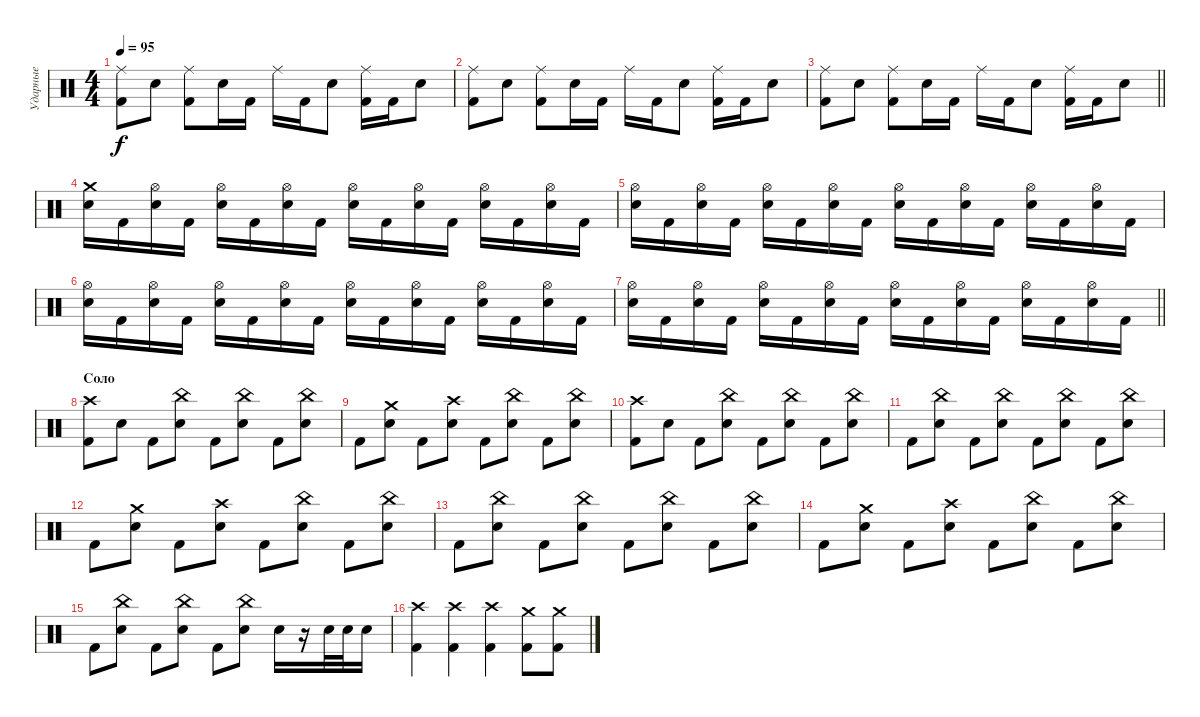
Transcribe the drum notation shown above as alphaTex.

\track ("Ударные" "Ударные") {instrument percussion}
\staff {score}
\articulation defaults
\ts (4 4)
\tempo 95
\clef neutral
\ks c
("Kick (hit) 2" "Ride (middle)").8{dy f} "Electric Snare (hit)".8 ("Kick (hit) 2" "Ride (middle)").8 "Electric Snare (hit)".16 "Kick (hit) 2".16 "Ride (middle)".16 "Kick (hit) 2".16 "Electric Snare (hit)".8 ("Kick (hit) 2" "Ride (middle)").16 "Kick (hit) 2".16 "Electric Snare (hit)".8 |
("Kick (hit) 2" "Ride (middle)").8 "Electric Snare (hit)".8 ("Kick (hit) 2" "Ride (middle)").8 "Electric Snare (hit)".16 "Kick (hit) 2".16 "Ride (middle)".16 "Kick (hit) 2".16 "Electric Snare (hit)".8 ("Kick (hit) 2" "Ride (middle)").16 "Kick (hit) 2".16 "Electric Snare (hit)".8 |
\barLineRight lightlight
("Kick (hit) 2" "Ride (middle)").8 "Electric Snare (hit)".8 ("Kick (hit) 2" "Ride (middle)").8 "Electric Snare (hit)".16 "Kick (hit) 2".16 "Ride (middle)".16 "Kick (hit) 2".16 "Electric Snare (hit)".8 ("Kick (hit) 2" "Ride (middle)").16 "Kick (hit) 2".16 "Electric Snare (hit)".8 |
("Electric Snare (hit)" "Crash medium (hit)").16 "Kick (hit) 2".16 ("Electric Snare (hit)" "Hi-Hat (open)").16 "Kick (hit) 2".16 ("Electric Snare (hit)" "Hi-Hat (open)").16 "Kick (hit) 2".16 ("Electric Snare (hit)" "Hi-Hat (open)").16 "Kick (hit) 2".16 ("Electric Snare (hit)" "Hi-Hat (open)").16 "Kick (hit) 2".16 ("Electric Snare (hit)" "Hi-Hat (open)").16 "Kick (hit) 2".16 ("Electric Snare (hit)" "Hi-Hat (open)").16 "Kick (hit) 2".16 ("Electric Snare (hit)" "Hi-Hat (open)").16 "Kick (hit) 2".16 |
("Electric Snare (hit)" "Hi-Hat (open)").16 "Kick (hit) 2".16 ("Electric Snare (hit)" "Hi-Hat (open)").16 "Kick (hit) 2".16 ("Electric Snare (hit)" "Hi-Hat (open)").16 "Kick (hit) 2".16 ("Electric Snare (hit)" "Hi-Hat (open)").16 "Kick (hit) 2".16 ("Electric Snare (hit)" "Hi-Hat (open)").16 "Kick (hit) 2".16 ("Electric Snare (hit)" "Hi-Hat (open)").16 "Kick (hit) 2".16 ("Electric Snare (hit)" "Hi-Hat (open)").16 "Kick (hit) 2".16 ("Electric Snare (hit)" "Hi-Hat (open)").16 "Kick (hit) 2".16 |
("Electric Snare (hit)" "Hi-Hat (open)").16 "Kick (hit) 2".16 ("Electric Snare (hit)" "Hi-Hat (open)").16 "Kick (hit) 2".16 ("Electric Snare (hit)" "Hi-Hat (open)").16 "Kick (hit) 2".16 ("Electric Snare (hit)" "Hi-Hat (open)").16 "Kick (hit) 2".16 ("Electric Snare (hit)" "Hi-Hat (open)").16 "Kick (hit) 2".16 ("Electric Snare (hit)" "Hi-Hat (open)").16 "Kick (hit) 2".16 ("Electric Snare (hit)" "Hi-Hat (open)").16 "Kick (hit) 2".16 ("Electric Snare (hit)" "Hi-Hat (open)").16 "Kick (hit) 2".16 |
\barLineRight lightlight
("Electric Snare (hit)" "Hi-Hat (open)").16 "Kick (hit) 2".16 ("Electric Snare (hit)" "Hi-Hat (open)").16 "Kick (hit) 2".16 ("Electric Snare (hit)" "Hi-Hat (open)").16 "Kick (hit) 2".16 ("Electric Snare (hit)" "Hi-Hat (open)").16 "Kick (hit) 2".16 ("Electric Snare (hit)" "Hi-Hat (open)").16 "Kick (hit) 2".16 ("Electric Snare (hit)" "Hi-Hat (open)").16 "Kick (hit) 2".16 ("Electric Snare (hit)" "Hi-Hat (open)").16 "Kick (hit) 2".16 ("Electric Snare (hit)" "Hi-Hat (open)").16 "Kick (hit) 2".16 |
\section ("" "Соло")
("Kick (hit) 2" "Crash high (hit)").8 "Electric Snare (hit)".8 "Kick (hit) 2".8 ("Electric Snare (hit)" "China (hit)").8 "Kick (hit) 2".8 ("Electric Snare (hit)" "China (hit)").8 "Kick (hit) 2".8 ("Electric Snare (hit)" "China (hit)").8 |
"Kick (hit) 2".8 ("Electric Snare (hit)" "Crash medium (hit)").8 "Kick (hit) 2".8 ("Electric Snare (hit)" "Crash high (hit)").8 "Kick (hit) 2".8 ("Electric Snare (hit)" "China (hit)").8 "Kick (hit) 2".8 ("Electric Snare (hit)" "China (hit)").8 |
("Kick (hit) 2" "Crash high (hit)").8 "Electric Snare (hit)".8 "Kick (hit) 2".8 ("Electric Snare (hit)" "China (hit)").8 "Kick (hit) 2".8 ("Electric Snare (hit)" "China (hit)").8 "Kick (hit) 2".8 ("Electric Snare (hit)" "China (hit)").8 |
"Kick (hit) 2".8 ("Electric Snare (hit)" "China (hit)").8 "Kick (hit) 2".8 ("Electric Snare (hit)" "China (hit)").8 "Kick (hit) 2".8 ("Electric Snare (hit)" "China (hit)").8 "Kick (hit) 2".8 ("Electric Snare (hit)" "China (hit)").8 |
"Kick (hit) 2".8 ("Electric Snare (hit)" "Crash medium (hit)").8 "Kick (hit) 2".8 ("Electric Snare (hit)" "Crash high (hit)").8 "Kick (hit) 2".8 ("Electric Snare (hit)" "China (hit)").8 "Kick (hit) 2".8 ("Electric Snare (hit)" "China (hit)").8 |
"Kick (hit) 2".8 ("Electric Snare (hit)" "China (hit)").8 "Kick (hit) 2".8 ("Electric Snare (hit)" "China (hit)").8 "Kick (hit) 2".8 ("Electric Snare (hit)" "China (hit)").8 "Kick (hit) 2".8 ("Electric Snare (hit)" "China (hit)").8 |
"Kick (hit) 2".8 ("Electric Snare (hit)" "Crash medium (hit)").8 "Kick (hit) 2".8 ("Electric Snare (hit)" "Crash high (hit)").8 "Kick (hit) 2".8 ("Electric Snare (hit)" "China (hit)").8 "Kick (hit) 2".8 ("Electric Snare (hit)" "China (hit)").8 |
"Kick (hit) 2".8 ("Electric Snare (hit)" "China (hit)").8 "Kick (hit) 2".8 ("Electric Snare (hit)" "China (hit)").8 "Kick (hit) 2".8 ("Electric Snare (hit)" "China (hit)").8 "Electric Snare (hit)".16 r.16 "Electric Snare (hit)".32 "Electric Snare (hit)".32 "Electric Snare (hit)".16 |
("Kick (hit) 2" "Crash high (hit)").4 ("Kick (hit) 2" "Crash high (hit)").4 ("Kick (hit) 2" "Crash high (hit)").4 ("Kick (hit) 2" "Crash medium (hit)").8 ("Kick (hit) 2" "Crash medium (hit)").8
